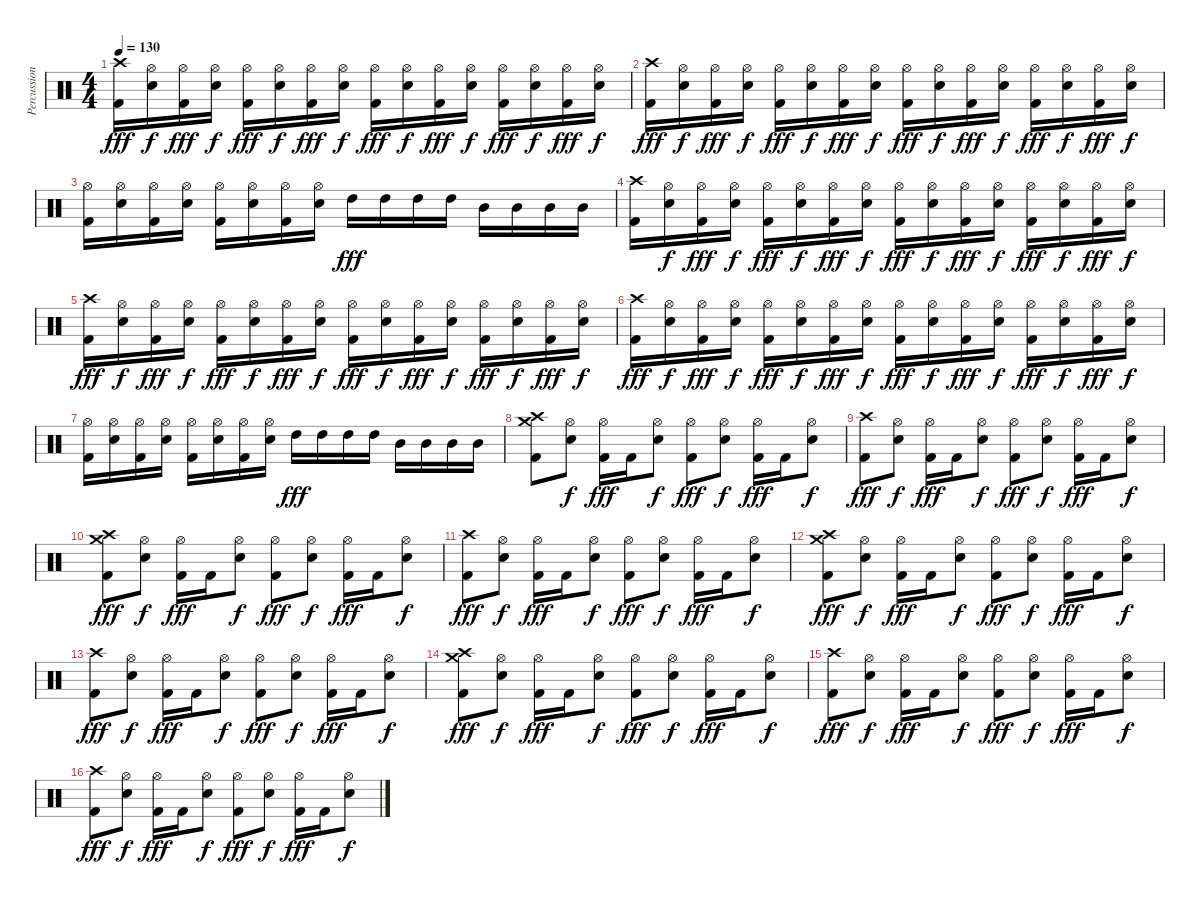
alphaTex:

\track ("Percussion" "Percussion") {instrument percussion}
\staff {score}
\articulation defaults
\ts (4 4)
\tempo 130
\clef neutral
\ks c
("Crash high (hit)" "Kick (hit) 2").16{dy fff} ("Hi-Hat (open)" "Electric Snare (hit)").16{dy f} ("Hi-Hat (open)" "Kick (hit) 2").16{dy fff} ("Hi-Hat (open)" "Electric Snare (hit)").16{dy f} ("Hi-Hat (open)" "Kick (hit) 2").16{dy fff} ("Hi-Hat (open)" "Electric Snare (hit)").16{dy f} ("Hi-Hat (open)" "Kick (hit) 2").16{dy fff} ("Hi-Hat (open)" "Electric Snare (hit)").16{dy f} ("Hi-Hat (open)" "Kick (hit) 2").16{dy fff} ("Hi-Hat (open)" "Electric Snare (hit)").16{dy f} ("Hi-Hat (open)" "Kick (hit) 2").16{dy fff} ("Hi-Hat (open)" "Electric Snare (hit)").16{dy f} ("Hi-Hat (open)" "Kick (hit) 2").16{dy fff} ("Hi-Hat (open)" "Electric Snare (hit)").16{dy f} ("Hi-Hat (open)" "Kick (hit) 2").16{dy fff} ("Hi-Hat (open)" "Electric Snare (hit)").16{dy f} |
("Crash high (hit)" "Kick (hit) 2").16{dy fff} ("Hi-Hat (open)" "Electric Snare (hit)").16{dy f} ("Hi-Hat (open)" "Kick (hit) 2").16{dy fff} ("Hi-Hat (open)" "Electric Snare (hit)").16{dy f} ("Hi-Hat (open)" "Kick (hit) 2").16{dy fff} ("Hi-Hat (open)" "Electric Snare (hit)").16{dy f} ("Hi-Hat (open)" "Kick (hit) 2").16{dy fff} ("Hi-Hat (open)" "Electric Snare (hit)").16{dy f} ("Hi-Hat (open)" "Kick (hit) 2").16{dy fff} ("Hi-Hat (open)" "Electric Snare (hit)").16{dy f} ("Hi-Hat (open)" "Kick (hit) 2").16{dy fff} ("Hi-Hat (open)" "Electric Snare (hit)").16{dy f} ("Hi-Hat (open)" "Kick (hit) 2").16{dy fff} ("Hi-Hat (open)" "Electric Snare (hit)").16{dy f} ("Hi-Hat (open)" "Kick (hit) 2").16{dy fff} ("Hi-Hat (open)" "Electric Snare (hit)").16{dy f} |
("Hi-Hat (open)" "Kick (hit) 2").16 ("Hi-Hat (open)" "Electric Snare (hit)").16 ("Hi-Hat (open)" "Kick (hit) 2").16 ("Hi-Hat (open)" "Electric Snare (hit)").16 ("Hi-Hat (open)" "Kick (hit) 2").16 ("Hi-Hat (open)" "Electric Snare (hit)").16 ("Hi-Hat (open)" "Kick (hit) 2").16 ("Hi-Hat (open)" "Electric Snare (hit)").16 "High Tom (hit)".16{dy fff} "High Tom (hit)".16 "High Tom (hit)".16 "High Tom (hit)".16 "Mid Tom (hit)".16 "Mid Tom (hit)".16 "Mid Tom (hit)".16 "Mid Tom (hit)".16 |
("Crash high (hit)" "Kick (hit) 2").16 ("Hi-Hat (open)" "Electric Snare (hit)").16{dy f} ("Hi-Hat (open)" "Kick (hit) 2").16{dy fff} ("Hi-Hat (open)" "Electric Snare (hit)").16{dy f} ("Hi-Hat (open)" "Kick (hit) 2").16{dy fff} ("Hi-Hat (open)" "Electric Snare (hit)").16{dy f} ("Hi-Hat (open)" "Kick (hit) 2").16{dy fff} ("Hi-Hat (open)" "Electric Snare (hit)").16{dy f} ("Hi-Hat (open)" "Kick (hit) 2").16{dy fff} ("Hi-Hat (open)" "Electric Snare (hit)").16{dy f} ("Hi-Hat (open)" "Kick (hit) 2").16{dy fff} ("Hi-Hat (open)" "Electric Snare (hit)").16{dy f} ("Hi-Hat (open)" "Kick (hit) 2").16{dy fff} ("Hi-Hat (open)" "Electric Snare (hit)").16{dy f} ("Hi-Hat (open)" "Kick (hit) 2").16{dy fff} ("Hi-Hat (open)" "Electric Snare (hit)").16{dy f} |
("Crash high (hit)" "Kick (hit) 2").16{dy fff} ("Hi-Hat (open)" "Electric Snare (hit)").16{dy f} ("Hi-Hat (open)" "Kick (hit) 2").16{dy fff} ("Hi-Hat (open)" "Electric Snare (hit)").16{dy f} ("Hi-Hat (open)" "Kick (hit) 2").16{dy fff} ("Hi-Hat (open)" "Electric Snare (hit)").16{dy f} ("Hi-Hat (open)" "Kick (hit) 2").16{dy fff} ("Hi-Hat (open)" "Electric Snare (hit)").16{dy f} ("Hi-Hat (open)" "Kick (hit) 2").16{dy fff} ("Hi-Hat (open)" "Electric Snare (hit)").16{dy f} ("Hi-Hat (open)" "Kick (hit) 2").16{dy fff} ("Hi-Hat (open)" "Electric Snare (hit)").16{dy f} ("Hi-Hat (open)" "Kick (hit) 2").16{dy fff} ("Hi-Hat (open)" "Electric Snare (hit)").16{dy f} ("Hi-Hat (open)" "Kick (hit) 2").16{dy fff} ("Hi-Hat (open)" "Electric Snare (hit)").16{dy f} |
("Crash high (hit)" "Kick (hit) 2").16{dy fff} ("Hi-Hat (open)" "Electric Snare (hit)").16{dy f} ("Hi-Hat (open)" "Kick (hit) 2").16{dy fff} ("Hi-Hat (open)" "Electric Snare (hit)").16{dy f} ("Hi-Hat (open)" "Kick (hit) 2").16{dy fff} ("Hi-Hat (open)" "Electric Snare (hit)").16{dy f} ("Hi-Hat (open)" "Kick (hit) 2").16{dy fff} ("Hi-Hat (open)" "Electric Snare (hit)").16{dy f} ("Hi-Hat (open)" "Kick (hit) 2").16{dy fff} ("Hi-Hat (open)" "Electric Snare (hit)").16{dy f} ("Hi-Hat (open)" "Kick (hit) 2").16{dy fff} ("Hi-Hat (open)" "Electric Snare (hit)").16{dy f} ("Hi-Hat (open)" "Kick (hit) 2").16{dy fff} ("Hi-Hat (open)" "Electric Snare (hit)").16{dy f} ("Hi-Hat (open)" "Kick (hit) 2").16{dy fff} ("Hi-Hat (open)" "Electric Snare (hit)").16{dy f} |
("Hi-Hat (open)" "Kick (hit) 2").16 ("Hi-Hat (open)" "Electric Snare (hit)").16 ("Hi-Hat (open)" "Kick (hit) 2").16 ("Hi-Hat (open)" "Electric Snare (hit)").16 ("Hi-Hat (open)" "Kick (hit) 2").16 ("Hi-Hat (open)" "Electric Snare (hit)").16 ("Hi-Hat (open)" "Kick (hit) 2").16 ("Hi-Hat (open)" "Electric Snare (hit)").16 "High Tom (hit)".16{dy fff} "High Tom (hit)".16 "High Tom (hit)".16 "High Tom (hit)".16 "Mid Tom (hit)".16 "Mid Tom (hit)".16 "Mid Tom (hit)".16 "Mid Tom (hit)".16 |
("Crash high (hit)" "Crash medium (hit)" "Kick (hit) 2").8 ("Hi-Hat (open)" "Electric Snare (hit)").8{dy f} ("Hi-Hat (open)" "Kick (hit) 2").16{dy fff} "Kick (hit) 2".16 ("Hi-Hat (open)" "Electric Snare (hit)").8{dy f} ("Hi-Hat (open)" "Kick (hit) 2").8{dy fff} ("Hi-Hat (open)" "Electric Snare (hit)").8{dy f} ("Hi-Hat (open)" "Kick (hit) 2").16{dy fff} "Kick (hit) 2".16 ("Hi-Hat (open)" "Electric Snare (hit)").8{dy f} |
("Crash high (hit)" "Kick (hit) 2").8{dy fff} ("Hi-Hat (open)" "Electric Snare (hit)").8{dy f} ("Hi-Hat (open)" "Kick (hit) 2").16{dy fff} "Kick (hit) 2".16 ("Hi-Hat (open)" "Electric Snare (hit)").8{dy f} ("Hi-Hat (open)" "Kick (hit) 2").8{dy fff} ("Hi-Hat (open)" "Electric Snare (hit)").8{dy f} ("Hi-Hat (open)" "Kick (hit) 2").16{dy fff} "Kick (hit) 2".16 ("Hi-Hat (open)" "Electric Snare (hit)").8{dy f} |
("Crash high (hit)" "Crash medium (hit)" "Kick (hit) 2").8{dy fff} ("Hi-Hat (open)" "Electric Snare (hit)").8{dy f} ("Hi-Hat (open)" "Kick (hit) 2").16{dy fff} "Kick (hit) 2".16 ("Hi-Hat (open)" "Electric Snare (hit)").8{dy f} ("Hi-Hat (open)" "Kick (hit) 2").8{dy fff} ("Hi-Hat (open)" "Electric Snare (hit)").8{dy f} ("Hi-Hat (open)" "Kick (hit) 2").16{dy fff} "Kick (hit) 2".16 ("Hi-Hat (open)" "Electric Snare (hit)").8{dy f} |
("Crash high (hit)" "Kick (hit) 2").8{dy fff} ("Hi-Hat (open)" "Electric Snare (hit)").8{dy f} ("Hi-Hat (open)" "Kick (hit) 2").16{dy fff} "Kick (hit) 2".16 ("Hi-Hat (open)" "Electric Snare (hit)").8{dy f} ("Hi-Hat (open)" "Kick (hit) 2").8{dy fff} ("Hi-Hat (open)" "Electric Snare (hit)").8{dy f} ("Hi-Hat (open)" "Kick (hit) 2").16{dy fff} "Kick (hit) 2".16 ("Hi-Hat (open)" "Electric Snare (hit)").8{dy f} |
("Crash high (hit)" "Crash medium (hit)" "Kick (hit) 2").8{dy fff} ("Hi-Hat (open)" "Electric Snare (hit)").8{dy f} ("Hi-Hat (open)" "Kick (hit) 2").16{dy fff} "Kick (hit) 2".16 ("Hi-Hat (open)" "Electric Snare (hit)").8{dy f} ("Hi-Hat (open)" "Kick (hit) 2").8{dy fff} ("Hi-Hat (open)" "Electric Snare (hit)").8{dy f} ("Hi-Hat (open)" "Kick (hit) 2").16{dy fff} "Kick (hit) 2".16 ("Hi-Hat (open)" "Electric Snare (hit)").8{dy f} |
("Crash high (hit)" "Kick (hit) 2").8{dy fff} ("Hi-Hat (open)" "Electric Snare (hit)").8{dy f} ("Hi-Hat (open)" "Kick (hit) 2").16{dy fff} "Kick (hit) 2".16 ("Hi-Hat (open)" "Electric Snare (hit)").8{dy f} ("Hi-Hat (open)" "Kick (hit) 2").8{dy fff} ("Hi-Hat (open)" "Electric Snare (hit)").8{dy f} ("Hi-Hat (open)" "Kick (hit) 2").16{dy fff} "Kick (hit) 2".16 ("Hi-Hat (open)" "Electric Snare (hit)").8{dy f} |
("Crash high (hit)" "Crash medium (hit)" "Kick (hit) 2").8{dy fff} ("Hi-Hat (open)" "Electric Snare (hit)").8{dy f} ("Hi-Hat (open)" "Kick (hit) 2").16{dy fff} "Kick (hit) 2".16 ("Hi-Hat (open)" "Electric Snare (hit)").8{dy f} ("Hi-Hat (open)" "Kick (hit) 2").8{dy fff} ("Hi-Hat (open)" "Electric Snare (hit)").8{dy f} ("Hi-Hat (open)" "Kick (hit) 2").16{dy fff} "Kick (hit) 2".16 ("Hi-Hat (open)" "Electric Snare (hit)").8{dy f} |
("Crash high (hit)" "Kick (hit) 2").8{dy fff} ("Hi-Hat (open)" "Electric Snare (hit)").8{dy f} ("Hi-Hat (open)" "Kick (hit) 2").16{dy fff} "Kick (hit) 2".16 ("Hi-Hat (open)" "Electric Snare (hit)").8{dy f} ("Hi-Hat (open)" "Kick (hit) 2").8{dy fff} ("Hi-Hat (open)" "Electric Snare (hit)").8{dy f} ("Hi-Hat (open)" "Kick (hit) 2").16{dy fff} "Kick (hit) 2".16 ("Hi-Hat (open)" "Electric Snare (hit)").8{dy f} |
("Crash high (hit)" "Kick (hit) 2").8{dy fff} ("Hi-Hat (open)" "Electric Snare (hit)").8{dy f} ("Hi-Hat (open)" "Kick (hit) 2").16{dy fff} "Kick (hit) 2".16 ("Hi-Hat (open)" "Electric Snare (hit)").8{dy f} ("Hi-Hat (open)" "Kick (hit) 2").8{dy fff} ("Hi-Hat (open)" "Electric Snare (hit)").8{dy f} ("Hi-Hat (open)" "Kick (hit) 2").16{dy fff} "Kick (hit) 2".16 ("Hi-Hat (open)" "Electric Snare (hit)").8{dy f}
